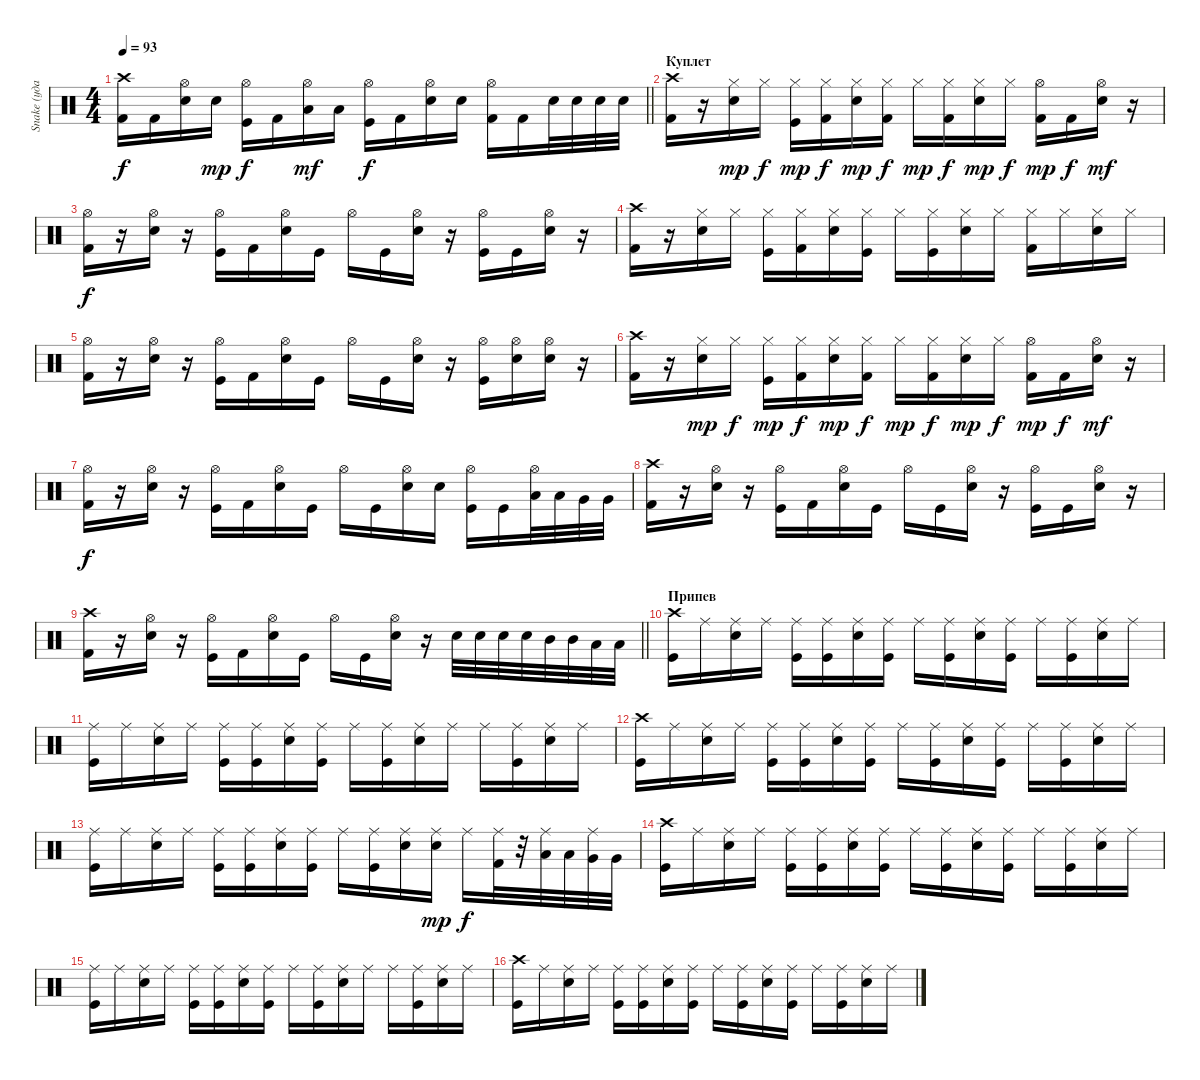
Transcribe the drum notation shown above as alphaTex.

\track ("Snake (ударные)" "Snake (уда") {instrument percussion}
\staff {score}
\articulation defaults
\ts (4 4)
\tempo 93
\clef neutral
\barLineRight lightlight
\ks c
("Crash high (hit)" "Kick (hit) 2").16{dy f} "Kick (hit) 2".16 ("Hi-Hat (open)" "Snare (hit) 2").16 "Snare (hit) 2".16{dy mp} ("Hi-Hat (open)" "Kick (hit)").16{dy f} "Kick (hit) 2".16 ("Hi-Hat (open)" "Low Tom (hit)").16{dy mf} "Low Tom (hit)".16 ("Hi-Hat (open)" "Kick (hit)").16{dy f} "Kick (hit) 2".16 ("Hi-Hat (open)" "Snare (hit) 2").16 "Snare (hit) 2".16 ("Hi-Hat (open)" "Kick (hit) 2").16 "Kick (hit) 2".16 "Snare (hit) 2".32 "Snare (hit) 2".32 "Snare (hit) 2".32 "Snare (hit) 2".32 |
\section ("" "Куплет")
("Crash high (hit)" "Kick (hit) 2").16 r.16 ("Hi-Hat (closed)" "Snare (hit) 2").16{dy mp} "Hi-Hat (closed)".16{dy f} ("Hi-Hat (closed)" "Kick (hit)").16{dy mp} ("Hi-Hat (closed)" "Kick (hit) 2").16{dy f} ("Hi-Hat (closed)" "Snare (hit) 2").16{dy mp} ("Hi-Hat (closed)" "Kick (hit) 2").16{dy f} "Hi-Hat (closed)".16{dy mp} ("Hi-Hat (closed)" "Kick (hit) 2").16{dy f} ("Hi-Hat (closed)" "Snare (hit) 2").16{dy mp} "Hi-Hat (closed)".16{dy f} ("Hi-Hat (open)" "Kick (hit) 2").16{dy mp} "Kick (hit) 2".16{dy f} ("Hi-Hat (open)" "Snare (hit) 2").16{dy mf} r.16 |
("Hi-Hat (open)" "Kick (hit) 2").16{dy f} r.16 ("Hi-Hat (open)" "Snare (hit) 2").16 r.16 ("Hi-Hat (open)" "Kick (hit)").16 "Kick (hit) 2".16 ("Hi-Hat (open)" "Snare (hit) 2").16 "Kick (hit)".16 "Hi-Hat (open)".16 "Kick (hit)".16 ("Hi-Hat (open)" "Snare (hit) 2").16 r.16 ("Hi-Hat (open)" "Kick (hit)").16 "Kick (hit)".16 ("Hi-Hat (open)" "Snare (hit) 2").16 r.16 |
("Crash high (hit)" "Kick (hit) 2").16 r.16 ("Hi-Hat (closed)" "Snare (hit) 2").16 "Hi-Hat (closed)".16 ("Hi-Hat (closed)" "Kick (hit)").16 ("Hi-Hat (closed)" "Kick (hit) 2").16 ("Hi-Hat (closed)" "Snare (hit) 2").16 ("Hi-Hat (closed)" "Kick (hit)").16 "Hi-Hat (closed)".16 ("Hi-Hat (closed)" "Kick (hit)").16 ("Hi-Hat (closed)" "Snare (hit) 2").16 "Hi-Hat (closed)".16 ("Hi-Hat (closed)" "Kick (hit) 2").16 "Hi-Hat (closed)".16 ("Hi-Hat (closed)" "Snare (hit) 2").16 "Hi-Hat (closed)".16 |
("Hi-Hat (open)" "Kick (hit) 2").16 r.16 ("Hi-Hat (open)" "Snare (hit) 2").16 r.16 ("Hi-Hat (open)" "Kick (hit)").16 "Kick (hit) 2".16 ("Hi-Hat (open)" "Snare (hit) 2").16 "Kick (hit)".16 "Hi-Hat (open)".16 "Kick (hit)".16 ("Hi-Hat (open)" "Snare (hit) 2").16 r.16 ("Hi-Hat (open)" "Kick (hit)").16 ("Hi-Hat (open)" "Snare (hit) 2").16 ("Hi-Hat (open)" "Snare (hit) 2").16 r.16 |
("Crash high (hit)" "Kick (hit) 2").16 r.16 ("Hi-Hat (closed)" "Snare (hit) 2").16{dy mp} "Hi-Hat (closed)".16{dy f} ("Hi-Hat (closed)" "Kick (hit)").16{dy mp} ("Hi-Hat (closed)" "Kick (hit) 2").16{dy f} ("Hi-Hat (closed)" "Snare (hit) 2").16{dy mp} ("Hi-Hat (closed)" "Kick (hit) 2").16{dy f} "Hi-Hat (closed)".16{dy mp} ("Hi-Hat (closed)" "Kick (hit) 2").16{dy f} ("Hi-Hat (closed)" "Snare (hit) 2").16{dy mp} "Hi-Hat (closed)".16{dy f} ("Hi-Hat (open)" "Kick (hit) 2").16{dy mp} "Kick (hit) 2".16{dy f} ("Hi-Hat (open)" "Snare (hit) 2").16{dy mf} r.16 |
("Hi-Hat (open)" "Kick (hit) 2").16{dy f} r.16 ("Hi-Hat (open)" "Snare (hit) 2").16 r.16 ("Hi-Hat (open)" "Kick (hit)").16 "Kick (hit) 2".16 ("Hi-Hat (open)" "Snare (hit) 2").16 "Kick (hit)".16 "Hi-Hat (open)".16 "Kick (hit)".16 ("Hi-Hat (open)" "Snare (hit) 2").16 "Snare (hit) 2".16 ("Hi-Hat (open)" "Kick (hit)").16 "Kick (hit)".16 ("Hi-Hat (open)" "Low Tom (hit)").32 "Low Tom (hit)".32 "Very Low Tom (hit)".32 "Very Low Tom (hit)".32 |
("Crash high (hit)" "Kick (hit) 2").16 r.16 ("Hi-Hat (open)" "Snare (hit) 2").16 r.16 ("Hi-Hat (open)" "Kick (hit)").16 "Kick (hit) 2".16 ("Hi-Hat (open)" "Snare (hit) 2").16 "Kick (hit)".16 "Hi-Hat (open)".16 "Kick (hit)".16 ("Hi-Hat (open)" "Snare (hit) 2").16 r.16 ("Hi-Hat (open)" "Kick (hit)").16 "Kick (hit)".16 ("Hi-Hat (open)" "Snare (hit) 2").16 r.16 |
\barLineRight lightlight
("Crash high (hit)" "Kick (hit) 2").16 r.16 ("Hi-Hat (open)" "Snare (hit) 2").16 r.16 ("Hi-Hat (open)" "Kick (hit)").16 "Kick (hit) 2".16 ("Hi-Hat (open)" "Snare (hit) 2").16 "Kick (hit)".16 "Hi-Hat (open)".16 "Kick (hit)".16 ("Hi-Hat (open)" "Snare (hit) 2").16 r.16 "Snare (hit) 2".32 "Snare (hit) 2".32 "Snare (hit) 2".32 "Snare (hit) 2".32 "Mid Tom (hit)".32 "Mid Tom (hit)".32 "Low Tom (hit)".32 "Low Tom (hit)".32 |
\section ("" "Припев")
("Crash high (hit)" "Kick (hit)").16 "Ride (middle)".16 ("Ride (middle)" "Snare (hit) 2").16 "Ride (middle)".16 ("Ride (middle)" "Kick (hit)").16 ("Ride (middle)" "Kick (hit)").16 ("Ride (middle)" "Snare (hit) 2").16 ("Ride (middle)" "Kick (hit)").16 "Ride (middle)".16 ("Ride (middle)" "Kick (hit)").16 ("Ride (middle)" "Snare (hit) 2").16 ("Ride (middle)" "Kick (hit)").16 "Ride (middle)".16 ("Ride (middle)" "Kick (hit)").16 ("Ride (middle)" "Snare (hit) 2").16 "Ride (middle)".16 |
("Ride (middle)" "Kick (hit)").16 "Ride (middle)".16 ("Ride (middle)" "Snare (hit) 2").16 "Ride (middle)".16 ("Ride (middle)" "Kick (hit)").16 ("Ride (middle)" "Kick (hit)").16 ("Ride (middle)" "Snare (hit) 2").16 ("Ride (middle)" "Kick (hit)").16 "Ride (middle)".16 ("Ride (middle)" "Kick (hit)").16 ("Ride (middle)" "Snare (hit) 2").16 "Ride (middle)".16 "Ride (middle)".16 ("Ride (middle)" "Kick (hit)").16 ("Ride (middle)" "Snare (hit) 2").16 "Ride (middle)".16 |
("Crash high (hit)" "Kick (hit)").16 "Ride (middle)".16 ("Ride (middle)" "Snare (hit) 2").16 "Ride (middle)".16 ("Ride (middle)" "Kick (hit)").16 ("Ride (middle)" "Kick (hit)").16 ("Ride (middle)" "Snare (hit) 2").16 ("Ride (middle)" "Kick (hit)").16 "Ride (middle)".16 ("Ride (middle)" "Kick (hit)").16 ("Ride (middle)" "Snare (hit) 2").16 ("Ride (middle)" "Kick (hit)").16 "Ride (middle)".16 ("Ride (middle)" "Kick (hit)").16 ("Ride (middle)" "Snare (hit) 2").16 "Ride (middle)".16 |
("Ride (middle)" "Kick (hit)").16 "Ride (middle)".16 ("Ride (middle)" "Snare (hit) 2").16 "Ride (middle)".16 ("Ride (middle)" "Kick (hit)").16 ("Ride (middle)" "Kick (hit)").16 ("Ride (middle)" "Snare (hit) 2").16 ("Ride (middle)" "Kick (hit)").16 "Ride (middle)".16 ("Ride (middle)" "Kick (hit)").16 ("Ride (middle)" "Snare (hit) 2").16 ("Ride (middle)" "Snare (hit) 2").16{dy mp} "Ride (middle)".16{dy f} ("Ride (middle)" "Kick (hit) 2").32 r.32 ("Ride (middle)" "Low Tom (hit)").32 "Low Tom (hit)".32 ("Ride (middle)" "Very Low Tom (hit)").32 "Very Low Tom (hit)".32 |
("Crash high (hit)" "Kick (hit)").16 "Ride (middle)".16 ("Ride (middle)" "Snare (hit) 2").16 "Ride (middle)".16 ("Ride (middle)" "Kick (hit)").16 ("Ride (middle)" "Kick (hit)").16 ("Ride (middle)" "Snare (hit) 2").16 ("Ride (middle)" "Kick (hit)").16 "Ride (middle)".16 ("Ride (middle)" "Kick (hit)").16 ("Ride (middle)" "Snare (hit) 2").16 ("Ride (middle)" "Kick (hit)").16 "Ride (middle)".16 ("Ride (middle)" "Kick (hit)").16 ("Ride (middle)" "Snare (hit) 2").16 "Ride (middle)".16 |
("Ride (middle)" "Kick (hit)").16 "Ride (middle)".16 ("Ride (middle)" "Snare (hit) 2").16 "Ride (middle)".16 ("Ride (middle)" "Kick (hit)").16 ("Ride (middle)" "Kick (hit)").16 ("Ride (middle)" "Snare (hit) 2").16 ("Ride (middle)" "Kick (hit)").16 "Ride (middle)".16 ("Ride (middle)" "Kick (hit)").16 ("Ride (middle)" "Snare (hit) 2").16 "Ride (middle)".16 "Ride (middle)".16 ("Ride (middle)" "Kick (hit)").16 ("Ride (middle)" "Snare (hit) 2").16 "Ride (middle)".16 |
("Crash high (hit)" "Kick (hit)").16 "Ride (middle)".16 ("Ride (middle)" "Snare (hit) 2").16 "Ride (middle)".16 ("Ride (middle)" "Kick (hit)").16 ("Ride (middle)" "Kick (hit)").16 ("Ride (middle)" "Snare (hit) 2").16 ("Ride (middle)" "Kick (hit)").16 "Ride (middle)".16 ("Ride (middle)" "Kick (hit)").16 ("Ride (middle)" "Snare (hit) 2").16 ("Ride (middle)" "Kick (hit)").16 "Ride (middle)".16 ("Ride (middle)" "Kick (hit)").16 ("Ride (middle)" "Snare (hit) 2").16 "Ride (middle)".16
